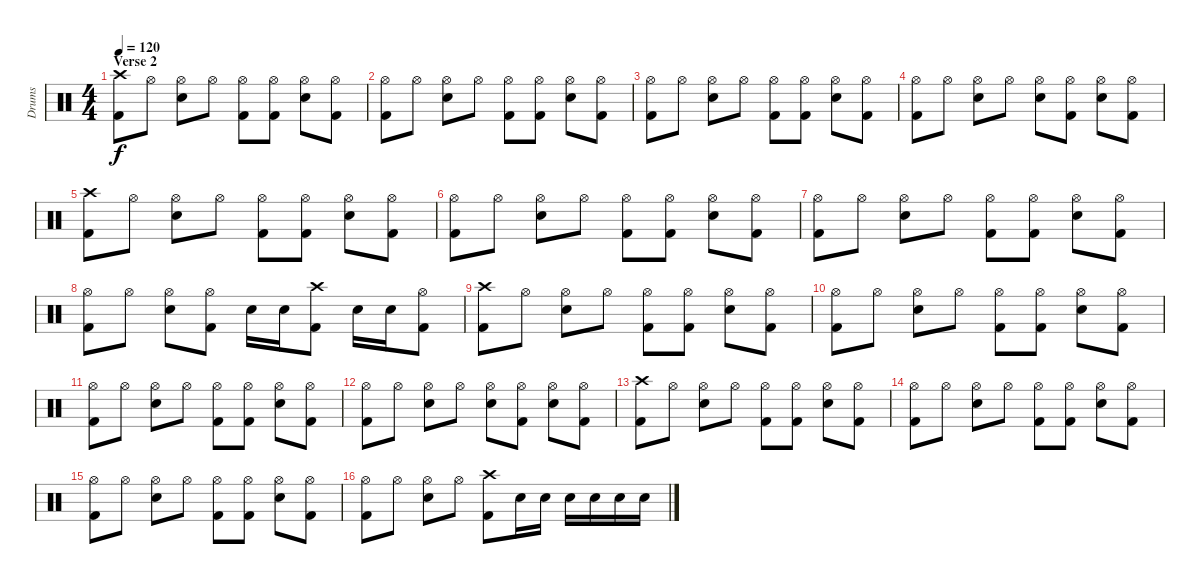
\track ("Drums" "Drums") {instrument percussion}
\staff {score}
\articulation defaults
\ts (4 4)
\section ("" "Verse 2")
\tempo 120
\clef neutral
\ks c
("Crash high (hit)" "Kick (hit) 2").8{dy f} "Hi-Hat (open)".8 ("Hi-Hat (open)" "Electric Snare (hit)").8 "Hi-Hat (open)".8 ("Hi-Hat (open)" "Kick (hit) 2").8 ("Hi-Hat (open)" "Kick (hit) 2").8 ("Hi-Hat (open)" "Electric Snare (hit)").8 ("Hi-Hat (open)" "Kick (hit) 2").8 |
("Hi-Hat (open)" "Kick (hit) 2").8 "Hi-Hat (open)".8 ("Hi-Hat (open)" "Electric Snare (hit)").8 "Hi-Hat (open)".8 ("Hi-Hat (open)" "Kick (hit) 2").8 ("Hi-Hat (open)" "Kick (hit) 2").8 ("Hi-Hat (open)" "Electric Snare (hit)").8 ("Hi-Hat (open)" "Kick (hit) 2").8 |
("Hi-Hat (open)" "Kick (hit) 2").8 "Hi-Hat (open)".8 ("Hi-Hat (open)" "Electric Snare (hit)").8 "Hi-Hat (open)".8 ("Hi-Hat (open)" "Kick (hit) 2").8 ("Hi-Hat (open)" "Kick (hit) 2").8 ("Hi-Hat (open)" "Electric Snare (hit)").8 ("Hi-Hat (open)" "Kick (hit) 2").8 |
("Hi-Hat (open)" "Kick (hit) 2").8 "Hi-Hat (open)".8 ("Hi-Hat (open)" "Electric Snare (hit)").8 "Hi-Hat (open)".8 ("Hi-Hat (open)" "Electric Snare (hit)").8 ("Hi-Hat (open)" "Kick (hit) 2").8 ("Hi-Hat (open)" "Electric Snare (hit)").8 ("Hi-Hat (open)" "Kick (hit) 2").8 |
("Crash high (hit)" "Kick (hit) 2").8 "Hi-Hat (open)".8 ("Hi-Hat (open)" "Electric Snare (hit)").8 "Hi-Hat (open)".8 ("Hi-Hat (open)" "Kick (hit) 2").8 ("Hi-Hat (open)" "Kick (hit) 2").8 ("Hi-Hat (open)" "Electric Snare (hit)").8 ("Hi-Hat (open)" "Kick (hit) 2").8 |
("Hi-Hat (open)" "Kick (hit) 2").8 "Hi-Hat (open)".8 ("Hi-Hat (open)" "Electric Snare (hit)").8 "Hi-Hat (open)".8 ("Hi-Hat (open)" "Kick (hit) 2").8 ("Hi-Hat (open)" "Kick (hit) 2").8 ("Hi-Hat (open)" "Electric Snare (hit)").8 ("Hi-Hat (open)" "Kick (hit) 2").8 |
("Hi-Hat (open)" "Kick (hit) 2").8 "Hi-Hat (open)".8 ("Hi-Hat (open)" "Electric Snare (hit)").8 "Hi-Hat (open)".8 ("Hi-Hat (open)" "Kick (hit) 2").8 ("Hi-Hat (open)" "Kick (hit) 2").8 ("Hi-Hat (open)" "Electric Snare (hit)").8 ("Hi-Hat (open)" "Kick (hit) 2").8 |
("Hi-Hat (open)" "Kick (hit) 2").8 "Hi-Hat (open)".8 ("Hi-Hat (open)" "Electric Snare (hit)").8 ("Hi-Hat (open)" "Kick (hit) 2").8 "Electric Snare (hit)".16 "Electric Snare (hit)".16 ("Crash high (hit)" "Kick (hit) 2").8 "Electric Snare (hit)".16 "Electric Snare (hit)".16 ("Hi-Hat (open)" "Kick (hit) 2").8 |
("Crash high (hit)" "Kick (hit) 2").8 "Hi-Hat (open)".8 ("Hi-Hat (open)" "Electric Snare (hit)").8 "Hi-Hat (open)".8 ("Hi-Hat (open)" "Kick (hit) 2").8 ("Hi-Hat (open)" "Kick (hit) 2").8 ("Hi-Hat (open)" "Electric Snare (hit)").8 ("Hi-Hat (open)" "Kick (hit) 2").8 |
("Hi-Hat (open)" "Kick (hit) 2").8 "Hi-Hat (open)".8 ("Hi-Hat (open)" "Electric Snare (hit)").8 "Hi-Hat (open)".8 ("Hi-Hat (open)" "Kick (hit) 2").8 ("Hi-Hat (open)" "Kick (hit) 2").8 ("Hi-Hat (open)" "Electric Snare (hit)").8 ("Hi-Hat (open)" "Kick (hit) 2").8 |
("Hi-Hat (open)" "Kick (hit) 2").8 "Hi-Hat (open)".8 ("Hi-Hat (open)" "Electric Snare (hit)").8 "Hi-Hat (open)".8 ("Hi-Hat (open)" "Kick (hit) 2").8 ("Hi-Hat (open)" "Kick (hit) 2").8 ("Hi-Hat (open)" "Electric Snare (hit)").8 ("Hi-Hat (open)" "Kick (hit) 2").8 |
("Hi-Hat (open)" "Kick (hit) 2").8 "Hi-Hat (open)".8 ("Hi-Hat (open)" "Electric Snare (hit)").8 "Hi-Hat (open)".8 ("Hi-Hat (open)" "Electric Snare (hit)").8 ("Hi-Hat (open)" "Kick (hit) 2").8 ("Hi-Hat (open)" "Electric Snare (hit)").8 ("Hi-Hat (open)" "Kick (hit) 2").8 |
("Crash high (hit)" "Kick (hit) 2").8 "Hi-Hat (open)".8 ("Hi-Hat (open)" "Electric Snare (hit)").8 "Hi-Hat (open)".8 ("Hi-Hat (open)" "Kick (hit) 2").8 ("Hi-Hat (open)" "Kick (hit) 2").8 ("Hi-Hat (open)" "Electric Snare (hit)").8 ("Hi-Hat (open)" "Kick (hit) 2").8 |
("Hi-Hat (open)" "Kick (hit) 2").8 "Hi-Hat (open)".8 ("Hi-Hat (open)" "Electric Snare (hit)").8 "Hi-Hat (open)".8 ("Hi-Hat (open)" "Kick (hit) 2").8 ("Hi-Hat (open)" "Kick (hit) 2").8 ("Hi-Hat (open)" "Electric Snare (hit)").8 ("Hi-Hat (open)" "Kick (hit) 2").8 |
("Hi-Hat (open)" "Kick (hit) 2").8 "Hi-Hat (open)".8 ("Hi-Hat (open)" "Electric Snare (hit)").8 "Hi-Hat (open)".8 ("Hi-Hat (open)" "Kick (hit) 2").8 ("Hi-Hat (open)" "Kick (hit) 2").8 ("Hi-Hat (open)" "Electric Snare (hit)").8 ("Hi-Hat (open)" "Kick (hit) 2").8 |
("Hi-Hat (open)" "Kick (hit) 2").8 "Hi-Hat (open)".8 ("Hi-Hat (open)" "Electric Snare (hit)").8 "Hi-Hat (open)".8 ("Crash high (hit)" "Kick (hit) 2").8 "Electric Snare (hit)".16 "Electric Snare (hit)".16 "Electric Snare (hit)".16 "Electric Snare (hit)".16 "Electric Snare (hit)".16 "Electric Snare (hit)".16
